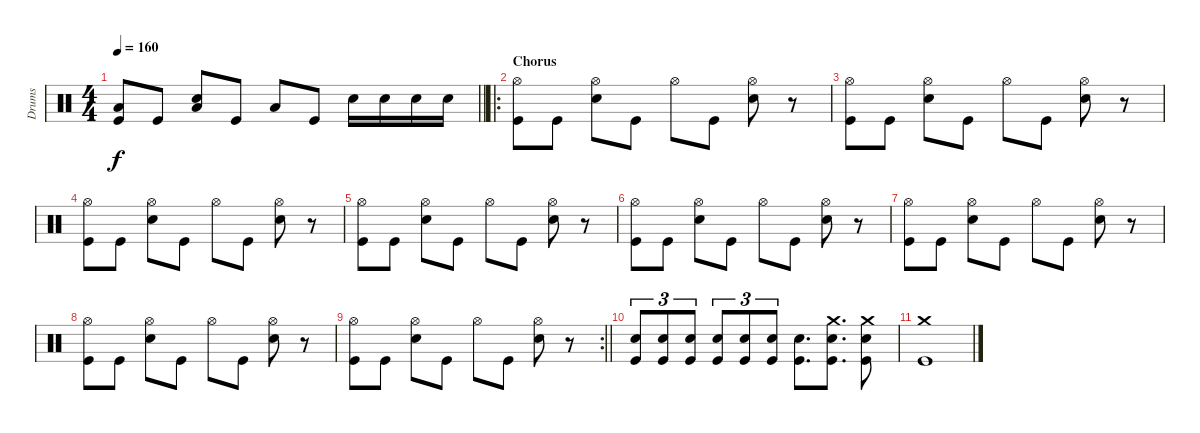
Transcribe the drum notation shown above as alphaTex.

\track ("Drums" "Drums") {instrument percussion}
\staff {score}
\articulation defaults
\ts (4 4)
\tempo 160
\clef neutral
\barLineRight lightlight
\ks c
("Low Floor Tom (hit)" "Kick (hit)").8{dy f} "Kick (hit)".8 ("Snare (hit) 2" "Low Floor Tom (hit)").8 "Kick (hit)".8 "Low Floor Tom (hit)".8 "Kick (hit)".8 "Snare (hit) 2".16 "Snare (hit) 2".16 "Snare (hit) 2".16 "Snare (hit) 2".16 |
\ro
\section ("" "Chorus")
("Hi-Hat (open)" "Kick (hit)").8 "Kick (hit)".8 ("Hi-Hat (open)" "Snare (hit) 2").8 "Kick (hit)".8 "Hi-Hat (open)".8 "Kick (hit)".8 ("Hi-Hat (open)" "Snare (hit) 2").8 r.8 |
("Hi-Hat (open)" "Kick (hit)").8 "Kick (hit)".8 ("Hi-Hat (open)" "Snare (hit) 2").8 "Kick (hit)".8 "Hi-Hat (open)".8 "Kick (hit)".8 ("Hi-Hat (open)" "Snare (hit) 2").8 r.8 |
("Hi-Hat (open)" "Kick (hit)").8 "Kick (hit)".8 ("Hi-Hat (open)" "Snare (hit) 2").8 "Kick (hit)".8 "Hi-Hat (open)".8 "Kick (hit)".8 ("Hi-Hat (open)" "Snare (hit) 2").8 r.8 |
("Hi-Hat (open)" "Kick (hit)").8 "Kick (hit)".8 ("Hi-Hat (open)" "Snare (hit) 2").8 "Kick (hit)".8 "Hi-Hat (open)".8 "Kick (hit)".8 ("Hi-Hat (open)" "Snare (hit) 2").8 r.8 |
("Hi-Hat (open)" "Kick (hit)").8 "Kick (hit)".8 ("Hi-Hat (open)" "Snare (hit) 2").8 "Kick (hit)".8 "Hi-Hat (open)".8 "Kick (hit)".8 ("Hi-Hat (open)" "Snare (hit) 2").8 r.8 |
("Hi-Hat (open)" "Kick (hit)").8 "Kick (hit)".8 ("Hi-Hat (open)" "Snare (hit) 2").8 "Kick (hit)".8 "Hi-Hat (open)".8 "Kick (hit)".8 ("Hi-Hat (open)" "Snare (hit) 2").8 r.8 |
("Hi-Hat (open)" "Kick (hit)").8 "Kick (hit)".8 ("Hi-Hat (open)" "Snare (hit) 2").8 "Kick (hit)".8 "Hi-Hat (open)".8 "Kick (hit)".8 ("Hi-Hat (open)" "Snare (hit) 2").8 r.8 |
\rc 2
\barLineRight lightlight
("Hi-Hat (open)" "Kick (hit)").8 "Kick (hit)".8 ("Hi-Hat (open)" "Snare (hit) 2").8 "Kick (hit)".8 "Hi-Hat (open)".8 "Kick (hit)".8 ("Hi-Hat (open)" "Snare (hit) 2").8 r.8 |
("Snare (hit) 2" "Kick (hit)").8{tu (3 2)} ("Snare (hit) 2" "Kick (hit)").8{tu (3 2)} ("Snare (hit) 2" "Kick (hit)").8{tu (3 2)} ("Snare (hit) 2" "Kick (hit)").8{tu (3 2)} ("Snare (hit) 2" "Kick (hit)").8{tu (3 2)} ("Snare (hit) 2" "Kick (hit)").8{tu (3 2)} ("Snare (hit) 2" "Kick (hit)").8{d} ("Crash medium (hit)" "Snare (hit) 2" "Kick (hit)").8{d} ("Crash medium (hit)" "Snare (hit) 2" "Kick (hit)").8 |
("Crash medium (hit)" "Kick (hit)").1
